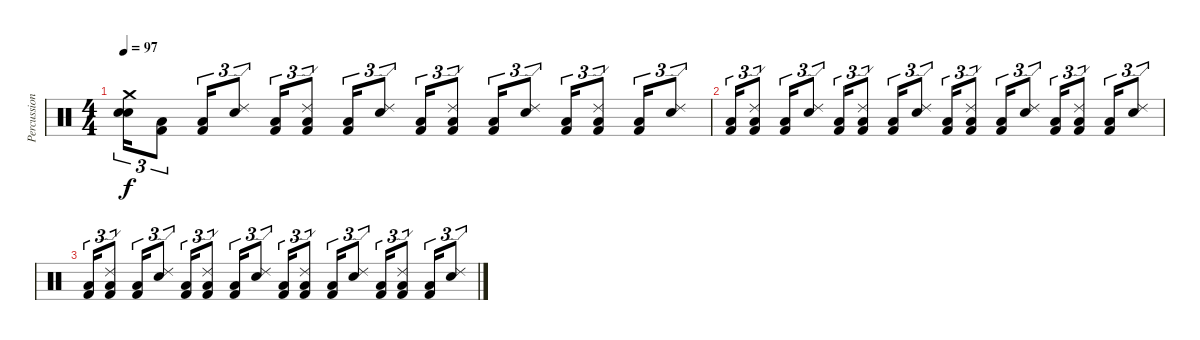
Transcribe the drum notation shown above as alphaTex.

\track ("Percussion" "Percussion") {instrument percussion}
\staff {score}
\articulation defaults
\ts (4 4)
\tempo 97
\clef neutral
\ks c
("Crash medium (hit)" "Electric Snare (hit)" "Snare (hit) 2").16{tu (3 2) dy f} ("Kick (hit) 2" "Low Tom (hit)").8{tu (3 2)} ("Kick (hit) 2" "Low Tom (hit)").16{tu (3 2)} ("Ride (edge) 2" "Electric Snare (hit)").8{tu (3 2)} ("Kick (hit) 2" "Low Tom (hit)").16{tu (3 2)} ("Ride (edge) 2" "Kick (hit) 2" "Low Tom (hit)").8{tu (3 2)} ("Kick (hit) 2" "Low Tom (hit)").16{tu (3 2)} ("Ride (edge) 2" "Electric Snare (hit)").8{tu (3 2)} ("Kick (hit) 2" "Low Tom (hit)").16{tu (3 2)} ("Ride (edge) 2" "Kick (hit) 2" "Low Tom (hit)").8{tu (3 2)} ("Kick (hit) 2" "Low Tom (hit)").16{tu (3 2)} ("Ride (edge) 2" "Electric Snare (hit)").8{tu (3 2)} ("Kick (hit) 2" "Low Tom (hit)").16{tu (3 2)} ("Ride (edge) 2" "Kick (hit) 2" "Low Tom (hit)").8{tu (3 2)} ("Kick (hit) 2" "Low Tom (hit)").16{tu (3 2)} ("Ride (edge) 2" "Electric Snare (hit)").8{tu (3 2)} |
("Kick (hit) 2" "Low Tom (hit)").16{tu (3 2)} ("Ride (edge) 2" "Kick (hit) 2" "Low Tom (hit)").8{tu (3 2)} ("Kick (hit) 2" "Low Tom (hit)").16{tu (3 2)} ("Ride (edge) 2" "Electric Snare (hit)").8{tu (3 2)} ("Kick (hit) 2" "Low Tom (hit)").16{tu (3 2)} ("Ride (edge) 2" "Kick (hit) 2" "Low Tom (hit)").8{tu (3 2)} ("Kick (hit) 2" "Low Tom (hit)").16{tu (3 2)} ("Ride (edge) 2" "Electric Snare (hit)").8{tu (3 2)} ("Kick (hit) 2" "Low Tom (hit)").16{tu (3 2)} ("Ride (edge) 2" "Kick (hit) 2" "Low Tom (hit)").8{tu (3 2)} ("Kick (hit) 2" "Low Tom (hit)").16{tu (3 2)} ("Ride (edge) 2" "Electric Snare (hit)").8{tu (3 2)} ("Kick (hit) 2" "Low Tom (hit)").16{tu (3 2)} ("Ride (edge) 2" "Kick (hit) 2" "Low Tom (hit)").8{tu (3 2)} ("Kick (hit) 2" "Low Tom (hit)").16{tu (3 2)} ("Ride (edge) 2" "Electric Snare (hit)").8{tu (3 2)} |
("Kick (hit) 2" "Low Tom (hit)").16{tu (3 2)} ("Ride (edge) 2" "Kick (hit) 2" "Low Tom (hit)").8{tu (3 2)} ("Kick (hit) 2" "Low Tom (hit)").16{tu (3 2)} ("Ride (edge) 2" "Electric Snare (hit)").8{tu (3 2)} ("Kick (hit) 2" "Low Tom (hit)").16{tu (3 2)} ("Ride (edge) 2" "Kick (hit) 2" "Low Tom (hit)").8{tu (3 2)} ("Kick (hit) 2" "Low Tom (hit)").16{tu (3 2)} ("Ride (edge) 2" "Electric Snare (hit)").8{tu (3 2)} ("Kick (hit) 2" "Low Tom (hit)").16{tu (3 2)} ("Ride (edge) 2" "Kick (hit) 2" "Low Tom (hit)").8{tu (3 2)} ("Kick (hit) 2" "Low Tom (hit)").16{tu (3 2)} ("Ride (edge) 2" "Electric Snare (hit)").8{tu (3 2)} ("Kick (hit) 2" "Low Tom (hit)").16{tu (3 2)} ("Ride (edge) 2" "Kick (hit) 2" "Low Tom (hit)").8{tu (3 2)} ("Kick (hit) 2" "Low Tom (hit)").16{tu (3 2)} ("Ride (edge) 2" "Electric Snare (hit)").8{tu (3 2)}
